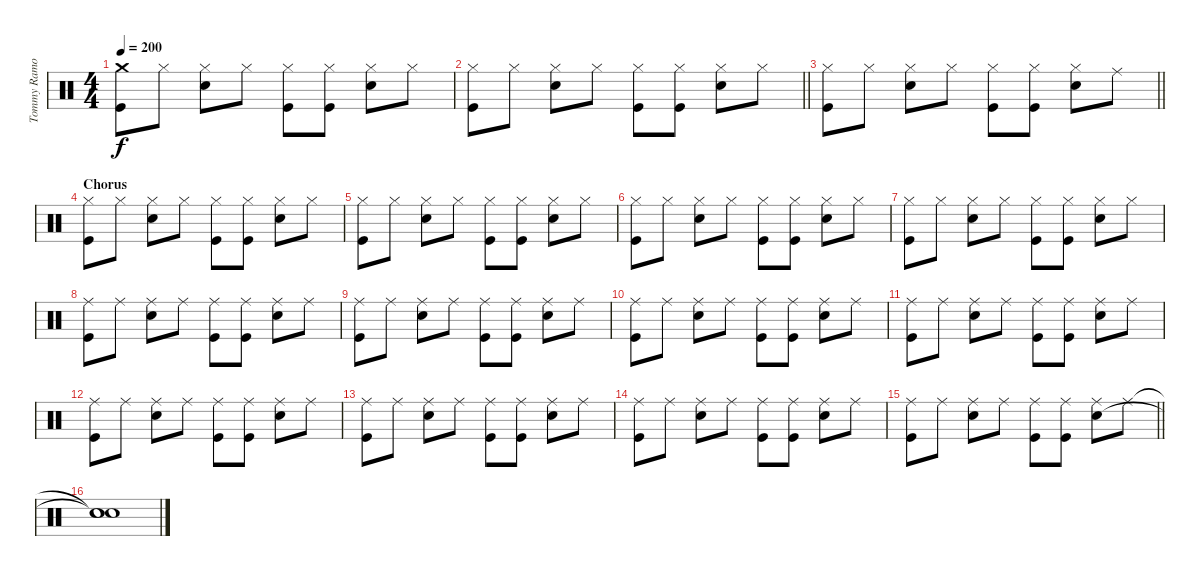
\track ("Tommy Ramone" "Tommy Ramo") {instrument percussion}
\staff {score}
\articulation defaults
\ts (4 4)
\tempo 200
\clef neutral
\ks c
("Crash medium (hit)" "Kick (hit)").8{dy f} "Hi-Hat (closed)".8 ("Hi-Hat (closed)" "Electric Snare (hit)").8 "Hi-Hat (closed)".8 ("Hi-Hat (closed)" "Kick (hit)").8 ("Hi-Hat (closed)" "Kick (hit)").8 ("Hi-Hat (closed)" "Electric Snare (hit)").8 "Hi-Hat (closed)".8 |
\barLineRight lightlight
("Hi-Hat (closed)" "Kick (hit)").8 "Hi-Hat (closed)".8 ("Hi-Hat (closed)" "Electric Snare (hit)").8 "Hi-Hat (closed)".8 ("Hi-Hat (closed)" "Kick (hit)").8 ("Hi-Hat (closed)" "Kick (hit)").8 ("Hi-Hat (closed)" "Electric Snare (hit)").8 "Hi-Hat (closed)".8 |
\section ("" "")
\barLineRight lightlight
("Hi-Hat (closed)" "Kick (hit)").8 "Hi-Hat (closed)".8 ("Hi-Hat (closed)" "Electric Snare (hit)").8 "Hi-Hat (closed)".8 ("Hi-Hat (closed)" "Kick (hit)").8 ("Hi-Hat (closed)" "Kick (hit)").8 ("Hi-Hat (closed)" "Electric Snare (hit)").8 "Ride (middle)".8 |
\section ("" "Chorus")
("Hi-Hat (closed)" "Kick (hit)").8 "Hi-Hat (closed)".8 ("Hi-Hat (closed)" "Electric Snare (hit)").8 "Hi-Hat (closed)".8 ("Hi-Hat (closed)" "Kick (hit)").8 ("Hi-Hat (closed)" "Kick (hit)").8 ("Hi-Hat (closed)" "Electric Snare (hit)").8 "Hi-Hat (closed)".8 |
("Hi-Hat (closed)" "Kick (hit)").8 "Hi-Hat (closed)".8 ("Hi-Hat (closed)" "Electric Snare (hit)").8 "Hi-Hat (closed)".8 ("Hi-Hat (closed)" "Kick (hit)").8 ("Hi-Hat (closed)" "Kick (hit)").8 ("Hi-Hat (closed)" "Electric Snare (hit)").8 "Hi-Hat (closed)".8 |
("Hi-Hat (closed)" "Kick (hit)").8 "Hi-Hat (closed)".8 ("Hi-Hat (closed)" "Electric Snare (hit)").8 "Hi-Hat (closed)".8 ("Hi-Hat (closed)" "Kick (hit)").8 ("Hi-Hat (closed)" "Kick (hit)").8 ("Hi-Hat (closed)" "Electric Snare (hit)").8 "Hi-Hat (closed)".8 |
("Hi-Hat (closed)" "Kick (hit)").8 "Hi-Hat (closed)".8 ("Hi-Hat (closed)" "Electric Snare (hit)").8 "Hi-Hat (closed)".8 ("Hi-Hat (closed)" "Kick (hit)").8 ("Hi-Hat (closed)" "Kick (hit)").8 ("Hi-Hat (closed)" "Electric Snare (hit)").8 "Hi-Hat (closed)".8 |
("Ride (middle)" "Kick (hit)").8 "Ride (middle)".8 ("Ride (middle)" "Electric Snare (hit)").8 "Ride (middle)".8 ("Ride (middle)" "Kick (hit)").8 ("Ride (middle)" "Kick (hit)").8 ("Ride (middle)" "Electric Snare (hit)").8 "Ride (middle)".8 |
("Ride (middle)" "Kick (hit)").8 "Ride (middle)".8 ("Ride (middle)" "Electric Snare (hit)").8 "Ride (middle)".8 ("Ride (middle)" "Kick (hit)").8 ("Ride (middle)" "Kick (hit)").8 ("Ride (middle)" "Electric Snare (hit)").8 "Ride (middle)".8 |
("Ride (middle)" "Kick (hit)").8 "Ride (middle)".8 ("Ride (middle)" "Electric Snare (hit)").8 "Ride (middle)".8 ("Ride (middle)" "Kick (hit)").8 ("Ride (middle)" "Kick (hit)").8 ("Ride (middle)" "Electric Snare (hit)").8 "Ride (middle)".8 |
("Ride (middle)" "Kick (hit)").8 "Ride (middle)".8 ("Ride (middle)" "Electric Snare (hit)").8 "Ride (middle)".8 ("Ride (middle)" "Kick (hit)").8 ("Ride (middle)" "Kick (hit)").8 ("Ride (middle)" "Electric Snare (hit)").8 "Ride (middle)".8 |
("Ride (middle)" "Kick (hit)").8 "Ride (middle)".8 ("Ride (middle)" "Electric Snare (hit)").8 "Ride (middle)".8 ("Ride (middle)" "Kick (hit)").8 ("Ride (middle)" "Kick (hit)").8 ("Ride (middle)" "Electric Snare (hit)").8 "Ride (middle)".8 |
("Ride (middle)" "Kick (hit)").8 "Ride (middle)".8 ("Ride (middle)" "Electric Snare (hit)").8 "Ride (middle)".8 ("Ride (middle)" "Kick (hit)").8 ("Ride (middle)" "Kick (hit)").8 ("Ride (middle)" "Electric Snare (hit)").8 "Ride (middle)".8 |
("Ride (middle)" "Kick (hit)").8 "Ride (middle)".8 ("Ride (middle)" "Electric Snare (hit)").8 "Ride (middle)".8 ("Ride (middle)" "Kick (hit)").8 ("Ride (middle)" "Kick (hit)").8 ("Ride (middle)" "Electric Snare (hit)").8 "Ride (middle)".8 |
\barLineRight lightlight
("Ride (middle)" "Kick (hit)").8 "Ride (middle)".8 ("Ride (middle)" "Electric Snare (hit)").8 "Ride (middle)".8 ("Ride (middle)" "Kick (hit)").8 ("Ride (middle)" "Kick (hit)").8 ("Ride (middle)" "Electric Snare (hit)").8 "Ride (middle)".8 |
("Snare (hit)"{t} "Snare (hit)"{t} "Snare (hit)").1
